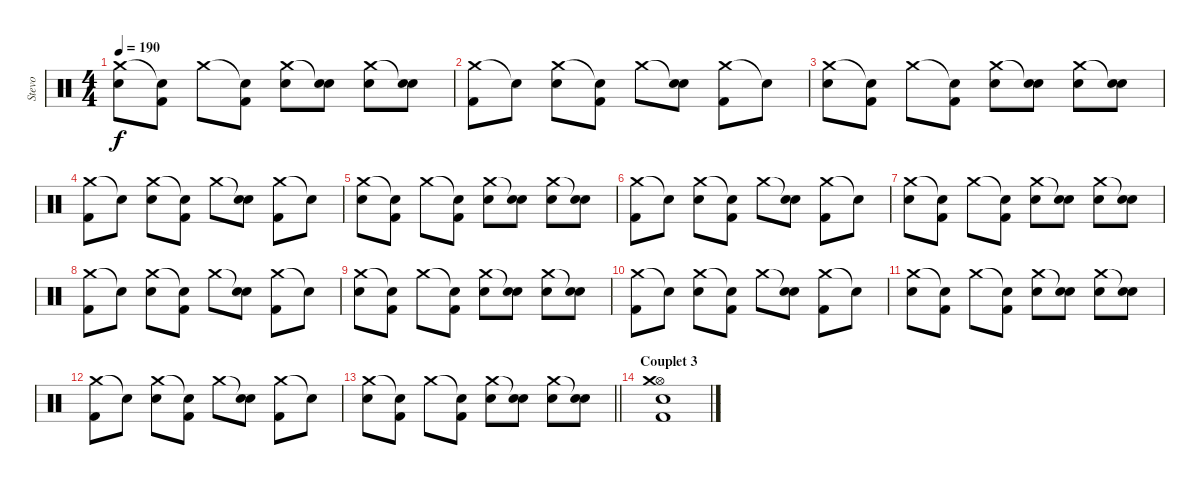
\track ("Stevo" "Stevo") {instrument percussion}
\staff {score}
\articulation defaults
\ts (4 4)
\tempo 190
\clef neutral
\ks c
("Crash medium (hit)" "Electric Snare (hit)").8{dy f} ("Snare (hit)"{t} "Kick (hit) 2").8 "Crash medium (hit)".8 ("Snare (hit)"{t} "Kick (hit) 2").8 ("Crash medium (hit)" "Electric Snare (hit)").8 ("Snare (hit)"{t} "Electric Snare (hit)").8 ("Crash medium (hit)" "Electric Snare (hit)").8 ("Snare (hit)"{t} "Electric Snare (hit)").8 |
("Crash medium (hit)" "Kick (hit) 2").8 "Snare (hit)"{t}.8 ("Crash medium (hit)" "Electric Snare (hit)").8 ("Snare (hit)"{t} "Kick (hit) 2").8 "Crash medium (hit)".8 ("Snare (hit)"{t} "Electric Snare (hit)").8 ("Crash medium (hit)" "Kick (hit) 2").8 "Snare (hit)"{t}.8 |
("Crash medium (hit)" "Electric Snare (hit)").8 ("Snare (hit)"{t} "Kick (hit) 2").8 "Crash medium (hit)".8 ("Snare (hit)"{t} "Kick (hit) 2").8 ("Crash medium (hit)" "Electric Snare (hit)").8 ("Snare (hit)"{t} "Electric Snare (hit)").8 ("Crash medium (hit)" "Electric Snare (hit)").8 ("Snare (hit)"{t} "Electric Snare (hit)").8 |
("Crash medium (hit)" "Kick (hit) 2").8 "Snare (hit)"{t}.8 ("Crash medium (hit)" "Electric Snare (hit)").8 ("Snare (hit)"{t} "Kick (hit) 2").8 "Crash medium (hit)".8 ("Snare (hit)"{t} "Electric Snare (hit)").8 ("Crash medium (hit)" "Kick (hit) 2").8 "Snare (hit)"{t}.8 |
("Crash medium (hit)" "Electric Snare (hit)").8 ("Snare (hit)"{t} "Kick (hit) 2").8 "Crash medium (hit)".8 ("Snare (hit)"{t} "Kick (hit) 2").8 ("Crash medium (hit)" "Electric Snare (hit)").8 ("Snare (hit)"{t} "Electric Snare (hit)").8 ("Crash medium (hit)" "Electric Snare (hit)").8 ("Snare (hit)"{t} "Electric Snare (hit)").8 |
("Crash medium (hit)" "Kick (hit) 2").8 "Snare (hit)"{t}.8 ("Crash medium (hit)" "Electric Snare (hit)").8 ("Snare (hit)"{t} "Kick (hit) 2").8 "Crash medium (hit)".8 ("Snare (hit)"{t} "Electric Snare (hit)").8 ("Crash medium (hit)" "Kick (hit) 2").8 "Snare (hit)"{t}.8 |
("Crash medium (hit)" "Electric Snare (hit)").8 ("Snare (hit)"{t} "Kick (hit) 2").8 "Crash medium (hit)".8 ("Snare (hit)"{t} "Kick (hit) 2").8 ("Crash medium (hit)" "Electric Snare (hit)").8 ("Snare (hit)"{t} "Electric Snare (hit)").8 ("Crash medium (hit)" "Electric Snare (hit)").8 ("Snare (hit)"{t} "Electric Snare (hit)").8 |
("Crash medium (hit)" "Kick (hit) 2").8 "Snare (hit)"{t}.8 ("Crash medium (hit)" "Electric Snare (hit)").8 ("Snare (hit)"{t} "Kick (hit) 2").8 "Crash medium (hit)".8 ("Snare (hit)"{t} "Electric Snare (hit)").8 ("Crash medium (hit)" "Kick (hit) 2").8 "Snare (hit)"{t}.8 |
("Crash medium (hit)" "Electric Snare (hit)").8 ("Snare (hit)"{t} "Kick (hit) 2").8 "Crash medium (hit)".8 ("Snare (hit)"{t} "Kick (hit) 2").8 ("Crash medium (hit)" "Electric Snare (hit)").8 ("Snare (hit)"{t} "Electric Snare (hit)").8 ("Crash medium (hit)" "Electric Snare (hit)").8 ("Snare (hit)"{t} "Electric Snare (hit)").8 |
("Crash medium (hit)" "Kick (hit) 2").8 "Snare (hit)"{t}.8 ("Crash medium (hit)" "Electric Snare (hit)").8 ("Snare (hit)"{t} "Kick (hit) 2").8 "Crash medium (hit)".8 ("Snare (hit)"{t} "Electric Snare (hit)").8 ("Crash medium (hit)" "Kick (hit) 2").8 "Snare (hit)"{t}.8 |
("Crash medium (hit)" "Electric Snare (hit)").8 ("Snare (hit)"{t} "Kick (hit) 2").8 "Crash medium (hit)".8 ("Snare (hit)"{t} "Kick (hit) 2").8 ("Crash medium (hit)" "Electric Snare (hit)").8 ("Snare (hit)"{t} "Electric Snare (hit)").8 ("Crash medium (hit)" "Electric Snare (hit)").8 ("Snare (hit)"{t} "Electric Snare (hit)").8 |
("Crash medium (hit)" "Kick (hit) 2").8 "Snare (hit)"{t}.8 ("Crash medium (hit)" "Electric Snare (hit)").8 ("Snare (hit)"{t} "Kick (hit) 2").8 "Crash medium (hit)".8 ("Snare (hit)"{t} "Electric Snare (hit)").8 ("Crash medium (hit)" "Kick (hit) 2").8 "Snare (hit)"{t}.8 |
\barLineRight lightlight
("Crash medium (hit)" "Electric Snare (hit)").8 ("Snare (hit)"{t} "Kick (hit) 2").8 "Crash medium (hit)".8 ("Snare (hit)"{t} "Kick (hit) 2").8 ("Crash medium (hit)" "Electric Snare (hit)").8 ("Snare (hit)"{t} "Electric Snare (hit)").8 ("Crash medium (hit)" "Electric Snare (hit)").8 ("Snare (hit)"{t} "Electric Snare (hit)").8 |
\section ("" "Couplet 3")
("Hi-Hat (open)" "Crash medium (hit)" "Electric Snare (hit)" "Kick (hit) 2").1
